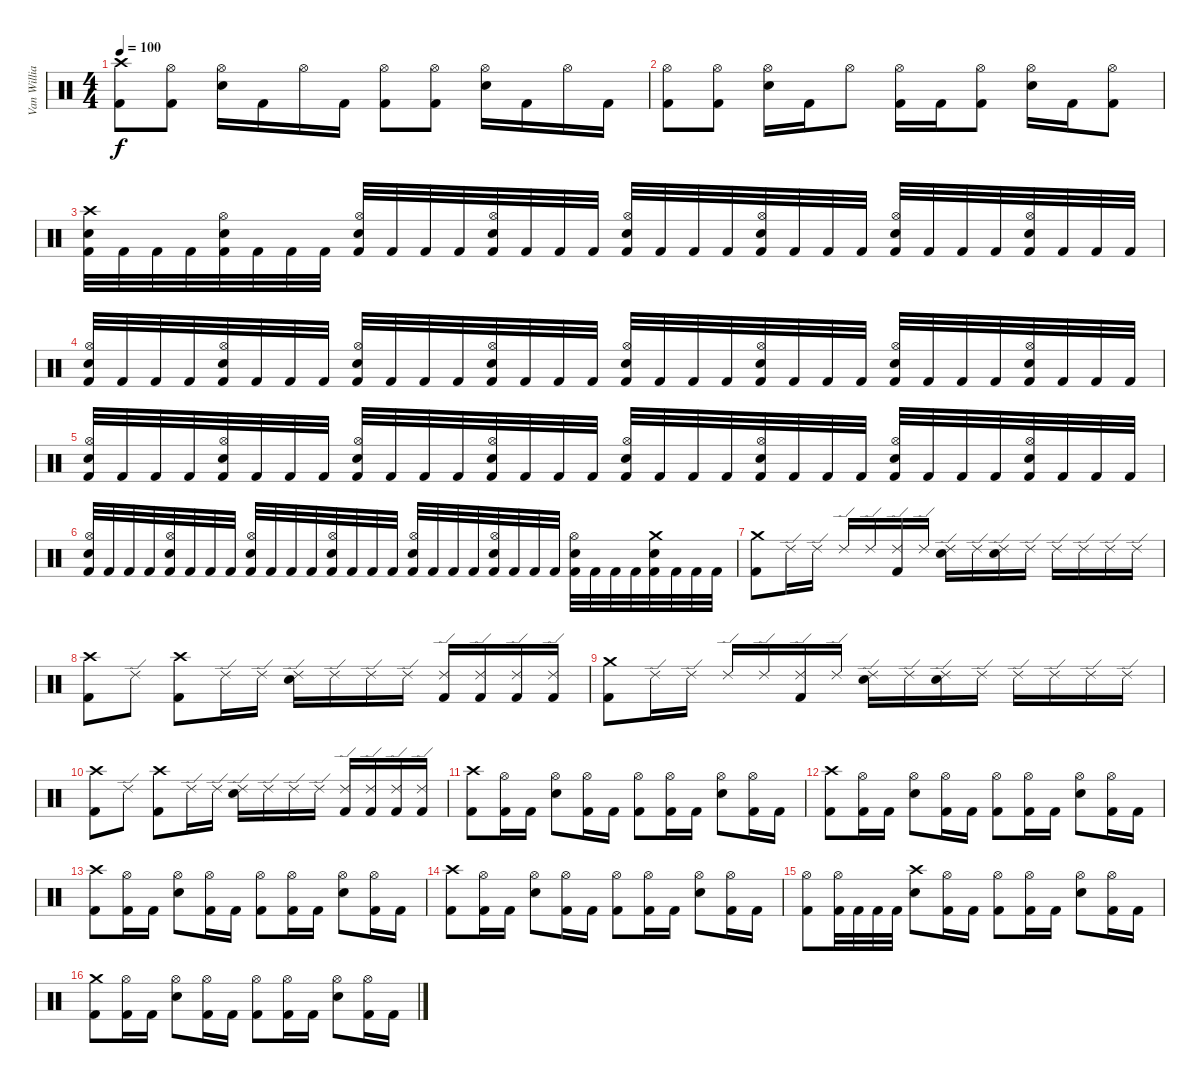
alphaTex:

\track ("Van Williams" "Van Willia") {instrument percussion}
\staff {score}
\articulation defaults
\ts (4 4)
\tempo 100
\clef neutral
\ks c
("Crash high (hit)" "Kick (hit) 2").8{dy f} ("Hi-Hat (open)" "Kick (hit) 2").8 ("Hi-Hat (open)" "Electric Snare (hit)").16 "Kick (hit) 2".16 "Hi-Hat (open)".16 "Kick (hit) 2".16 ("Hi-Hat (open)" "Kick (hit) 2").8 ("Hi-Hat (open)" "Kick (hit) 2").8 ("Hi-Hat (open)" "Electric Snare (hit)").16 "Kick (hit) 2".16 "Hi-Hat (open)".16 "Kick (hit) 2".16 |
("Hi-Hat (open)" "Kick (hit) 2").8 ("Hi-Hat (open)" "Kick (hit) 2").8 ("Hi-Hat (open)" "Electric Snare (hit)").16 "Kick (hit) 2".16 "Hi-Hat (open)".8 ("Hi-Hat (open)" "Kick (hit) 2").16 "Kick (hit) 2".16 ("Hi-Hat (open)" "Kick (hit) 2").8 ("Hi-Hat (open)" "Electric Snare (hit)").16 "Kick (hit) 2".16 ("Hi-Hat (open)" "Kick (hit) 2").8 |
("Crash high (hit)" "Kick (hit) 2" "Electric Snare (hit)").32 "Kick (hit) 2".32 "Kick (hit) 2".32 "Kick (hit) 2".32 ("Hi-Hat (open)" "Kick (hit) 2" "Electric Snare (hit)").32 "Kick (hit) 2".32 "Kick (hit) 2".32 "Kick (hit) 2".32 ("Hi-Hat (open)" "Kick (hit) 2" "Electric Snare (hit)").32 "Kick (hit) 2".32 "Kick (hit) 2".32 "Kick (hit) 2".32 ("Hi-Hat (open)" "Kick (hit) 2" "Electric Snare (hit)").32 "Kick (hit) 2".32 "Kick (hit) 2".32 "Kick (hit) 2".32 ("Hi-Hat (open)" "Kick (hit) 2" "Electric Snare (hit)").32 "Kick (hit) 2".32 "Kick (hit) 2".32 "Kick (hit) 2".32 ("Hi-Hat (open)" "Kick (hit) 2" "Electric Snare (hit)").32 "Kick (hit) 2".32 "Kick (hit) 2".32 "Kick (hit) 2".32 ("Hi-Hat (open)" "Kick (hit) 2" "Electric Snare (hit)").32 "Kick (hit) 2".32 "Kick (hit) 2".32 "Kick (hit) 2".32 ("Hi-Hat (open)" "Kick (hit) 2" "Electric Snare (hit)").32 "Kick (hit) 2".32 "Kick (hit) 2".32 "Kick (hit) 2".32 |
("Hi-Hat (open)" "Kick (hit) 2" "Electric Snare (hit)").32 "Kick (hit) 2".32 "Kick (hit) 2".32 "Kick (hit) 2".32 ("Hi-Hat (open)" "Kick (hit) 2" "Electric Snare (hit)").32 "Kick (hit) 2".32 "Kick (hit) 2".32 "Kick (hit) 2".32 ("Hi-Hat (open)" "Kick (hit) 2" "Electric Snare (hit)").32 "Kick (hit) 2".32 "Kick (hit) 2".32 "Kick (hit) 2".32 ("Hi-Hat (open)" "Kick (hit) 2" "Electric Snare (hit)").32 "Kick (hit) 2".32 "Kick (hit) 2".32 "Kick (hit) 2".32 ("Hi-Hat (open)" "Kick (hit) 2" "Electric Snare (hit)").32 "Kick (hit) 2".32 "Kick (hit) 2".32 "Kick (hit) 2".32 ("Hi-Hat (open)" "Kick (hit) 2" "Electric Snare (hit)").32 "Kick (hit) 2".32 "Kick (hit) 2".32 "Kick (hit) 2".32 ("Hi-Hat (open)" "Kick (hit) 2" "Electric Snare (hit)").32 "Kick (hit) 2".32 "Kick (hit) 2".32 "Kick (hit) 2".32 ("Hi-Hat (open)" "Kick (hit) 2" "Electric Snare (hit)").32 "Kick (hit) 2".32 "Kick (hit) 2".32 "Kick (hit) 2".32 |
("Hi-Hat (open)" "Kick (hit) 2" "Electric Snare (hit)").32 "Kick (hit) 2".32 "Kick (hit) 2".32 "Kick (hit) 2".32 ("Hi-Hat (open)" "Kick (hit) 2" "Electric Snare (hit)").32 "Kick (hit) 2".32 "Kick (hit) 2".32 "Kick (hit) 2".32 ("Hi-Hat (open)" "Kick (hit) 2" "Electric Snare (hit)").32 "Kick (hit) 2".32 "Kick (hit) 2".32 "Kick (hit) 2".32 ("Hi-Hat (open)" "Kick (hit) 2" "Electric Snare (hit)").32 "Kick (hit) 2".32 "Kick (hit) 2".32 "Kick (hit) 2".32 ("Hi-Hat (open)" "Kick (hit) 2" "Electric Snare (hit)").32 "Kick (hit) 2".32 "Kick (hit) 2".32 "Kick (hit) 2".32 ("Hi-Hat (open)" "Kick (hit) 2" "Electric Snare (hit)").32 "Kick (hit) 2".32 "Kick (hit) 2".32 "Kick (hit) 2".32 ("Hi-Hat (open)" "Kick (hit) 2" "Electric Snare (hit)").32 "Kick (hit) 2".32 "Kick (hit) 2".32 "Kick (hit) 2".32 ("Hi-Hat (open)" "Kick (hit) 2" "Electric Snare (hit)").32 "Kick (hit) 2".32 "Kick (hit) 2".32 "Kick (hit) 2".32 |
("Hi-Hat (open)" "Kick (hit) 2" "Electric Snare (hit)").32 "Kick (hit) 2".32 "Kick (hit) 2".32 "Kick (hit) 2".32 ("Hi-Hat (open)" "Kick (hit) 2" "Electric Snare (hit)").32 "Kick (hit) 2".32 "Kick (hit) 2".32 "Kick (hit) 2".32 ("Hi-Hat (open)" "Kick (hit) 2" "Electric Snare (hit)").32 "Kick (hit) 2".32 "Kick (hit) 2".32 "Kick (hit) 2".32 ("Hi-Hat (open)" "Kick (hit) 2" "Electric Snare (hit)").32 "Kick (hit) 2".32 "Kick (hit) 2".32 "Kick (hit) 2".32 ("Hi-Hat (open)" "Kick (hit) 2" "Electric Snare (hit)").32 "Kick (hit) 2".32 "Kick (hit) 2".32 "Kick (hit) 2".32 ("Hi-Hat (open)" "Kick (hit) 2" "Electric Snare (hit)").32 "Kick (hit) 2".32 "Kick (hit) 2".32 "Kick (hit) 2".32 ("Hi-Hat (open)" "Kick (hit) 2" "Electric Snare (hit)").32 "Kick (hit) 2".32 "Kick (hit) 2".32 "Kick (hit) 2".32 ("Crash medium (hit)" "Kick (hit) 2" "Electric Snare (hit)").32 "Kick (hit) 2".32 "Kick (hit) 2".32 "Kick (hit) 2".32 |
("Crash medium (hit)" "Kick (hit) 2").8 "Ride (edge) 2".16 "Ride (edge) 2".16 "Ride (edge) 2".16 "Ride (edge) 2".16 ("Ride (edge) 2" "Kick (hit) 2").16 "Ride (edge) 2".16 ("Ride (edge) 2" "Electric Snare (hit)").16 "Ride (edge) 2".16 ("Ride (edge) 2" "Electric Snare (hit)").16 "Ride (edge) 2".16 "Ride (edge) 2".16 "Ride (edge) 2".16 "Ride (edge) 2".16 "Ride (edge) 2".16 |
("Crash high (hit)" "Kick (hit) 2").8 "Ride (edge) 2".8 ("Crash high (hit)" "Kick (hit) 2").8 "Ride (edge) 2".16 "Ride (edge) 2".16 ("Ride (edge) 2" "Electric Snare (hit)").16 "Ride (edge) 2".16 "Ride (edge) 2".16 "Ride (edge) 2".16 ("Ride (edge) 2" "Kick (hit) 2").16 ("Ride (edge) 2" "Kick (hit) 2").16 ("Ride (edge) 2" "Kick (hit) 2").16 ("Ride (edge) 2" "Kick (hit) 2").16 |
("Crash medium (hit)" "Kick (hit) 2").8 "Ride (edge) 2".16 "Ride (edge) 2".16 "Ride (edge) 2".16 "Ride (edge) 2".16 ("Ride (edge) 2" "Kick (hit) 2").16 "Ride (edge) 2".16 ("Ride (edge) 2" "Electric Snare (hit)").16 "Ride (edge) 2".16 ("Ride (edge) 2" "Electric Snare (hit)").16 "Ride (edge) 2".16 "Ride (edge) 2".16 "Ride (edge) 2".16 "Ride (edge) 2".16 "Ride (edge) 2".16 |
("Crash high (hit)" "Kick (hit) 2").8 "Ride (edge) 2".8 ("Crash high (hit)" "Kick (hit) 2").8 "Ride (edge) 2".16 "Ride (edge) 2".16 ("Ride (edge) 2" "Electric Snare (hit)").16 "Ride (edge) 2".16 "Ride (edge) 2".16 "Ride (edge) 2".16 ("Ride (edge) 2" "Kick (hit) 2").16 ("Ride (edge) 2" "Kick (hit) 2").16 ("Ride (edge) 2" "Kick (hit) 2").16 ("Ride (edge) 2" "Kick (hit) 2").16 |
("Crash high (hit)" "Kick (hit) 2").8 ("Hi-Hat (open)" "Kick (hit) 2").16 "Kick (hit) 2".16 ("Hi-Hat (open)" "Electric Snare (hit)").8 ("Hi-Hat (open)" "Kick (hit) 2").16 "Kick (hit) 2".16 ("Hi-Hat (open)" "Kick (hit) 2").8 ("Hi-Hat (open)" "Kick (hit) 2").16 "Kick (hit) 2".16 ("Hi-Hat (open)" "Electric Snare (hit)").8 ("Hi-Hat (open)" "Kick (hit) 2").16 "Kick (hit) 2".16 |
("Crash high (hit)" "Kick (hit) 2").8 ("Hi-Hat (open)" "Kick (hit) 2").16 "Kick (hit) 2".16 ("Hi-Hat (open)" "Electric Snare (hit)").8 ("Hi-Hat (open)" "Kick (hit) 2").16 "Kick (hit) 2".16 ("Hi-Hat (open)" "Kick (hit) 2").8 ("Hi-Hat (open)" "Kick (hit) 2").16 "Kick (hit) 2".16 ("Hi-Hat (open)" "Electric Snare (hit)").8 ("Hi-Hat (open)" "Kick (hit) 2").16 "Kick (hit) 2".16 |
("Crash high (hit)" "Kick (hit) 2").8 ("Hi-Hat (open)" "Kick (hit) 2").16 "Kick (hit) 2".16 ("Hi-Hat (open)" "Electric Snare (hit)").8 ("Hi-Hat (open)" "Kick (hit) 2").16 "Kick (hit) 2".16 ("Hi-Hat (open)" "Kick (hit) 2").8 ("Hi-Hat (open)" "Kick (hit) 2").16 "Kick (hit) 2".16 ("Hi-Hat (open)" "Electric Snare (hit)").8 ("Hi-Hat (open)" "Kick (hit) 2").16 "Kick (hit) 2".16 |
("Crash high (hit)" "Kick (hit) 2").8 ("Hi-Hat (open)" "Kick (hit) 2").16 "Kick (hit) 2".16 ("Hi-Hat (open)" "Electric Snare (hit)").8 ("Hi-Hat (open)" "Kick (hit) 2").16 "Kick (hit) 2".16 ("Hi-Hat (open)" "Kick (hit) 2").8 ("Hi-Hat (open)" "Kick (hit) 2").16 "Kick (hit) 2".16 ("Hi-Hat (open)" "Electric Snare (hit)").8 ("Hi-Hat (open)" "Kick (hit) 2").16 "Kick (hit) 2".16 |
("Hi-Hat (open)" "Kick (hit) 2").8 ("Hi-Hat (open)" "Kick (hit) 2").32 "Kick (hit) 2".32 "Kick (hit) 2".32 "Kick (hit) 2".32 ("Crash high (hit)" "Electric Snare (hit)").8 ("Hi-Hat (open)" "Kick (hit) 2").16 "Kick (hit) 2".16 ("Hi-Hat (open)" "Kick (hit) 2").8 ("Hi-Hat (open)" "Kick (hit) 2").16 "Kick (hit) 2".16 ("Hi-Hat (open)" "Electric Snare (hit)").8 ("Hi-Hat (open)" "Kick (hit) 2").16 "Kick (hit) 2".16 |
("Crash medium (hit)" "Kick (hit) 2").8 ("Hi-Hat (open)" "Kick (hit) 2").16 "Kick (hit) 2".16 ("Hi-Hat (open)" "Electric Snare (hit)").8 ("Hi-Hat (open)" "Kick (hit) 2").16 "Kick (hit) 2".16 ("Hi-Hat (open)" "Kick (hit) 2").8 ("Hi-Hat (open)" "Kick (hit) 2").16 "Kick (hit) 2".16 ("Hi-Hat (open)" "Electric Snare (hit)").8 ("Hi-Hat (open)" "Kick (hit) 2").16 "Kick (hit) 2".16
